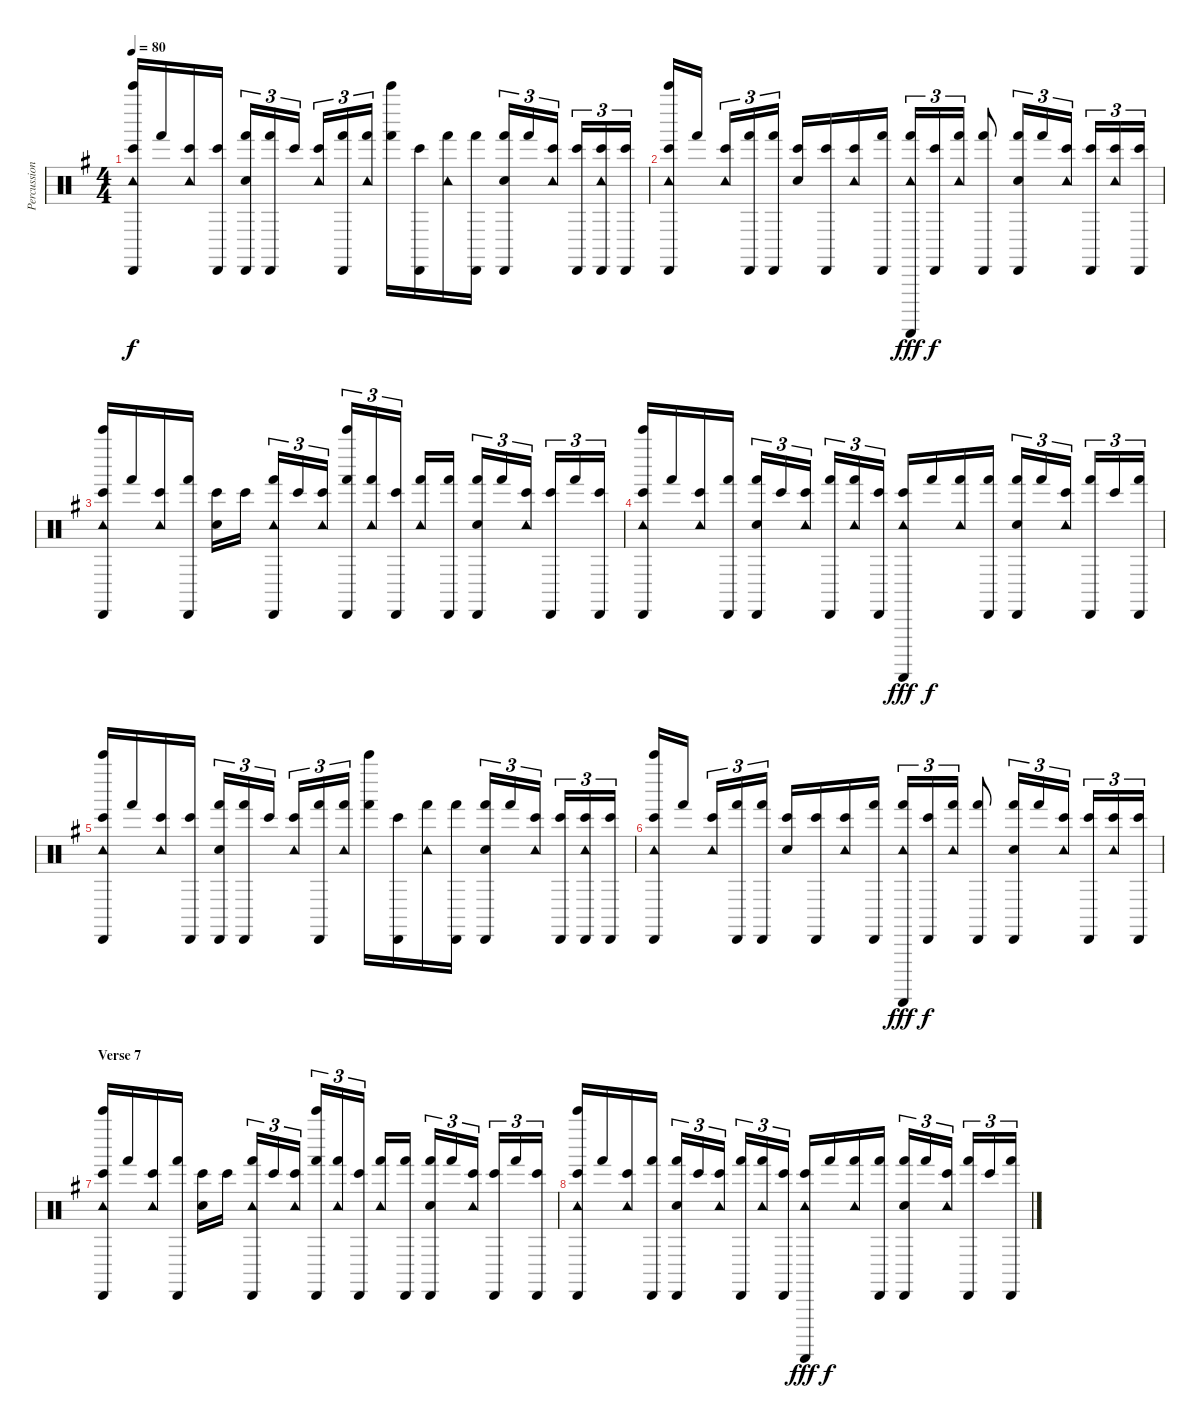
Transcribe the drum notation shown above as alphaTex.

\track ("Percussion" "Percussion") {instrument percussion}
\staff {score}
\articulation defaults
\ts (4 4)
\tempo 80
\clef neutral
\ks g
("Cabasa (hit)" "Bell Tree (hit)" "Tambourine (hit)" "Bongo High (hit)").16{dy f} "Hand (hit)".16 ("Tambourine (hit)" "Bongo High (hit)").16 ("Cabasa (hit)" "Bongo High (hit)").16 ("Cabasa (hit)" "Hand Clap (hit)" "Hand (hit)").16{tu (3 2)} ("Cabasa (hit)" "Hand (hit)").16{tu (3 2)} "Bongo High (hit)".16{tu (3 2)} ("Tambourine (hit)" "Bongo High (hit)").16{tu (3 2)} ("Cabasa (hit)" "Hand (hit)").16{tu (3 2)} ("Tambourine (hit)" "Hand (hit)").16{tu (3 2)} ("Bell Tree (hit)" "Hand (hit)").16 ("Cabasa (hit)" "Bongo High (hit)").16 ("Tambourine (hit)" "Hand (hit)").16 ("Cabasa (hit)" "Hand (hit)").16 ("Cabasa (hit)" "Hand Clap (hit)" "Hand (hit)").16{tu (3 2)} "Hand (hit)".16{tu (3 2)} ("Tambourine (hit)" "Bongo High (hit)").16{tu (3 2)} ("Cabasa (hit)" "Bongo High (hit)").16{tu (3 2)} ("Cabasa (hit)" "Tambourine (hit)" "Bongo High (hit)").16{tu (3 2)} ("Cabasa (hit)" "Bongo High (hit)").16{tu (3 2)} |
("Cabasa (hit)" "Bell Tree (hit)" "Tambourine (hit)" "Bongo High (hit)").16 "Hand (hit)".16 ("Tambourine (hit)" "Bongo High (hit)").16{tu (3 2)} ("Cabasa (hit)" "Hand (hit)").16{tu (3 2)} ("Cabasa (hit)" "Hand (hit)").16{tu (3 2)} ("Hand Clap (hit)" "Bongo High (hit)").16 ("Cabasa (hit)" "Bongo High (hit)").16 ("Tambourine (hit)" "Bongo High (hit)").16 ("Cabasa (hit)" "Hand (hit)").16 ("Guiro (scrap-return)" "Tambourine (hit)" "Hand (hit)").16{tu (3 2) dy fff} ("Cabasa (hit)" "Bongo High (hit)").16{tu (3 2) dy f} ("Tambourine (hit)" "Hand (hit)").16{tu (3 2)} ("Cabasa (hit)" "Hand (hit)").8 ("Cabasa (hit)" "Hand Clap (hit)" "Hand (hit)").16{tu (3 2)} "Hand (hit)".16{tu (3 2)} ("Tambourine (hit)" "Bongo High (hit)").16{tu (3 2)} ("Cabasa (hit)" "Bongo High (hit)").16{tu (3 2)} ("Tambourine (hit)" "Bongo High (hit)").16{tu (3 2)} ("Cabasa (hit)" "Bongo High (hit)").16{tu (3 2)} |
("Cabasa (hit)" "Bell Tree (hit)" "Tambourine (hit)" "Bongo High (hit)").16 "Hand (hit)".16 ("Tambourine (hit)" "Bongo High (hit)").16 ("Cabasa (hit)" "Hand (hit)").16 ("Hand Clap (hit)" "Bongo High (hit)").16 "Bongo High (hit)".16 ("Cabasa (hit)" "Tambourine (hit)" "Hand (hit)").16{tu (3 2)} "Bongo High (hit)".16{tu (3 2)} ("Tambourine (hit)" "Bongo High (hit)").16{tu (3 2)} ("Cabasa (hit)" "Bell Tree (hit)" "Hand (hit)").16{tu (3 2)} ("Tambourine (hit)" "Hand (hit)").16{tu (3 2)} ("Cabasa (hit)" "Bongo High (hit)").16{tu (3 2)} ("Tambourine (hit)" "Hand (hit)").16 ("Cabasa (hit)" "Hand (hit)").16 ("Cabasa (hit)" "Hand Clap (hit)" "Hand (hit)").16{tu (3 2)} "Hand (hit)".16{tu (3 2)} ("Tambourine (hit)" "Bongo High (hit)").16{tu (3 2)} ("Cabasa (hit)" "Bongo High (hit)").16{tu (3 2)} "Hand (hit)".16{tu (3 2)} ("Cabasa (hit)" "Bongo High (hit)").16{tu (3 2)} |
("Cabasa (hit)" "Bell Tree (hit)" "Tambourine (hit)" "Bongo High (hit)").16 "Hand (hit)".16 ("Tambourine (hit)" "Bongo High (hit)").16 ("Cabasa (hit)" "Hand (hit)").16 ("Cabasa (hit)" "Hand Clap (hit)" "Hand (hit)").16{tu (3 2)} "Bongo High (hit)".16{tu (3 2)} ("Tambourine (hit)" "Bongo High (hit)").16{tu (3 2)} ("Cabasa (hit)" "Hand (hit)").16{tu (3 2)} ("Tambourine (hit)" "Hand (hit)").16{tu (3 2)} ("Cabasa (hit)" "Bongo High (hit)").16{tu (3 2)} ("Guiro (scrap-return)" "Tambourine (hit)" "Bongo High (hit)").16{dy fff} "Hand (hit)".16{dy f} ("Tambourine (hit)" "Hand (hit)").16 ("Cabasa (hit)" "Hand (hit)").16 ("Cabasa (hit)" "Hand Clap (hit)" "Hand (hit)").16{tu (3 2)} "Hand (hit)".16{tu (3 2)} ("Tambourine (hit)" "Bongo High (hit)").16{tu (3 2)} ("Cabasa (hit)" "Hand (hit)").16{tu (3 2)} "Bongo High (hit)".16{tu (3 2)} ("Cabasa (hit)" "Hand (hit)").16{tu (3 2)} |
("Cabasa (hit)" "Bell Tree (hit)" "Tambourine (hit)" "Bongo High (hit)").16 "Hand (hit)".16 ("Tambourine (hit)" "Bongo High (hit)").16 ("Cabasa (hit)" "Bongo High (hit)").16 ("Cabasa (hit)" "Hand Clap (hit)" "Hand (hit)").16{tu (3 2)} ("Cabasa (hit)" "Hand (hit)").16{tu (3 2)} "Bongo High (hit)".16{tu (3 2)} ("Tambourine (hit)" "Bongo High (hit)").16{tu (3 2)} ("Cabasa (hit)" "Hand (hit)").16{tu (3 2)} ("Tambourine (hit)" "Hand (hit)").16{tu (3 2)} ("Bell Tree (hit)" "Hand (hit)").16 ("Cabasa (hit)" "Bongo High (hit)").16 ("Tambourine (hit)" "Hand (hit)").16 ("Cabasa (hit)" "Hand (hit)").16 ("Cabasa (hit)" "Hand Clap (hit)" "Hand (hit)").16{tu (3 2)} "Hand (hit)".16{tu (3 2)} ("Tambourine (hit)" "Bongo High (hit)").16{tu (3 2)} ("Cabasa (hit)" "Bongo High (hit)").16{tu (3 2)} ("Cabasa (hit)" "Tambourine (hit)" "Bongo High (hit)").16{tu (3 2)} ("Cabasa (hit)" "Bongo High (hit)").16{tu (3 2)} |
("Cabasa (hit)" "Bell Tree (hit)" "Tambourine (hit)" "Bongo High (hit)").16 "Hand (hit)".16 ("Tambourine (hit)" "Bongo High (hit)").16{tu (3 2)} ("Cabasa (hit)" "Hand (hit)").16{tu (3 2)} ("Cabasa (hit)" "Hand (hit)").16{tu (3 2)} ("Hand Clap (hit)" "Bongo High (hit)").16 ("Cabasa (hit)" "Bongo High (hit)").16 ("Tambourine (hit)" "Bongo High (hit)").16 ("Cabasa (hit)" "Hand (hit)").16 ("Guiro (scrap-return)" "Tambourine (hit)" "Hand (hit)").16{tu (3 2) dy fff} ("Cabasa (hit)" "Bongo High (hit)").16{tu (3 2) dy f} ("Tambourine (hit)" "Hand (hit)").16{tu (3 2)} ("Cabasa (hit)" "Hand (hit)").8 ("Cabasa (hit)" "Hand Clap (hit)" "Hand (hit)").16{tu (3 2)} "Hand (hit)".16{tu (3 2)} ("Tambourine (hit)" "Bongo High (hit)").16{tu (3 2)} ("Cabasa (hit)" "Bongo High (hit)").16{tu (3 2)} ("Tambourine (hit)" "Bongo High (hit)").16{tu (3 2)} ("Cabasa (hit)" "Bongo High (hit)").16{tu (3 2)} |
\section ("" "Verse 7")
("Cabasa (hit)" "Bell Tree (hit)" "Tambourine (hit)" "Bongo High (hit)").16 "Hand (hit)".16 ("Tambourine (hit)" "Bongo High (hit)").16 ("Cabasa (hit)" "Hand (hit)").16 ("Hand Clap (hit)" "Bongo High (hit)").16 "Bongo High (hit)".16 ("Cabasa (hit)" "Tambourine (hit)" "Hand (hit)").16{tu (3 2)} "Bongo High (hit)".16{tu (3 2)} ("Tambourine (hit)" "Bongo High (hit)").16{tu (3 2)} ("Cabasa (hit)" "Bell Tree (hit)" "Hand (hit)").16{tu (3 2)} ("Tambourine (hit)" "Hand (hit)").16{tu (3 2)} ("Cabasa (hit)" "Bongo High (hit)").16{tu (3 2)} ("Tambourine (hit)" "Hand (hit)").16 ("Cabasa (hit)" "Hand (hit)").16 ("Cabasa (hit)" "Hand Clap (hit)" "Hand (hit)").16{tu (3 2)} "Hand (hit)".16{tu (3 2)} ("Tambourine (hit)" "Bongo High (hit)").16{tu (3 2)} ("Cabasa (hit)" "Bongo High (hit)").16{tu (3 2)} "Hand (hit)".16{tu (3 2)} ("Cabasa (hit)" "Bongo High (hit)").16{tu (3 2)} |
("Cabasa (hit)" "Bell Tree (hit)" "Tambourine (hit)" "Bongo High (hit)").16 "Hand (hit)".16 ("Tambourine (hit)" "Bongo High (hit)").16 ("Cabasa (hit)" "Hand (hit)").16 ("Cabasa (hit)" "Hand Clap (hit)" "Hand (hit)").16{tu (3 2)} "Bongo High (hit)".16{tu (3 2)} ("Tambourine (hit)" "Bongo High (hit)").16{tu (3 2)} ("Cabasa (hit)" "Hand (hit)").16{tu (3 2)} ("Tambourine (hit)" "Hand (hit)").16{tu (3 2)} ("Cabasa (hit)" "Bongo High (hit)").16{tu (3 2)} ("Guiro (scrap-return)" "Tambourine (hit)" "Bongo High (hit)").16{dy fff} "Hand (hit)".16{dy f} ("Tambourine (hit)" "Hand (hit)").16 ("Cabasa (hit)" "Hand (hit)").16 ("Cabasa (hit)" "Hand Clap (hit)" "Hand (hit)").16{tu (3 2)} "Hand (hit)".16{tu (3 2)} ("Tambourine (hit)" "Bongo High (hit)").16{tu (3 2)} ("Cabasa (hit)" "Hand (hit)").16{tu (3 2)} "Bongo High (hit)".16{tu (3 2)} ("Cabasa (hit)" "Hand (hit)").16{tu (3 2)}
